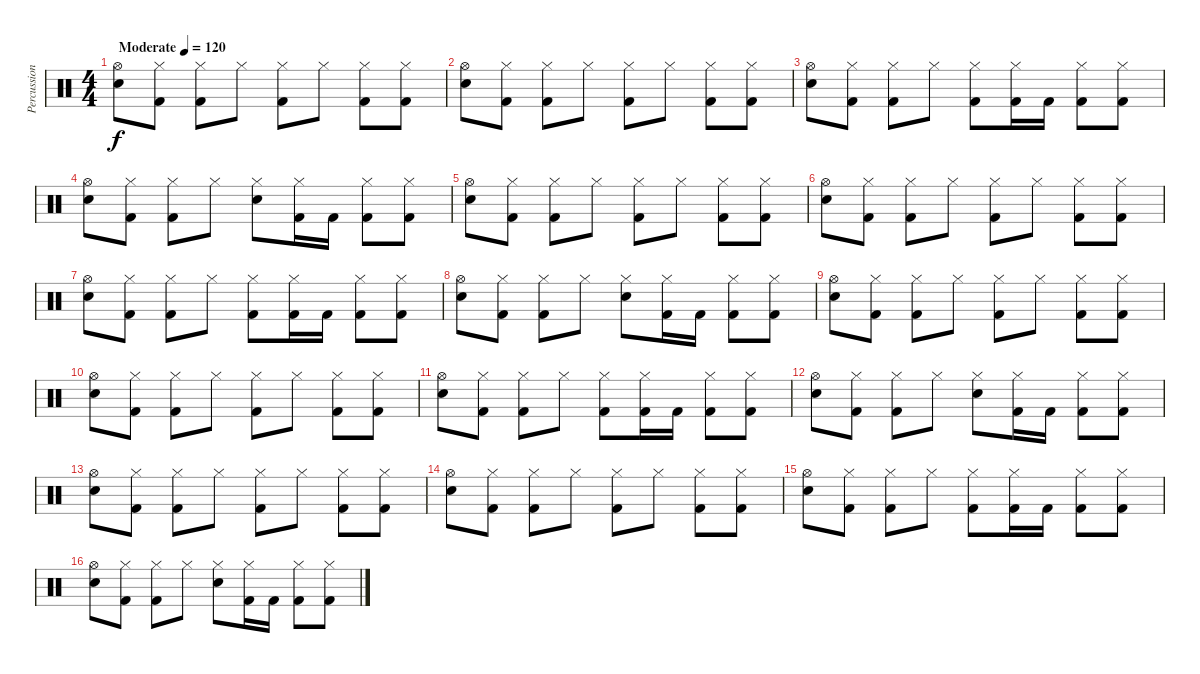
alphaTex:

\track ("Percussions" "Percussion") {instrument percussion}
\staff {score}
\articulation defaults
\ts (4 4)
\tempo (120 "Moderate")
\clef neutral
\ks c
("Hi-Hat (open)" "Snare (hit) 2").8{dy f} ("Hi-Hat (closed)" "Kick (hit) 2").8 ("Hi-Hat (closed)" "Kick (hit) 2").8 "Hi-Hat (closed)".8 ("Hi-Hat (closed)" "Kick (hit) 2").8 "Hi-Hat (closed)".8 ("Hi-Hat (closed)" "Kick (hit) 2").8 ("Hi-Hat (closed)" "Kick (hit) 2").8 |
("Hi-Hat (open)" "Snare (hit) 2").8 ("Hi-Hat (closed)" "Kick (hit) 2").8 ("Hi-Hat (closed)" "Kick (hit) 2").8 "Hi-Hat (closed)".8 ("Hi-Hat (closed)" "Kick (hit) 2").8 "Hi-Hat (closed)".8 ("Hi-Hat (closed)" "Kick (hit) 2").8 ("Hi-Hat (closed)" "Kick (hit) 2").8 |
("Hi-Hat (open)" "Snare (hit) 2").8 ("Hi-Hat (closed)" "Kick (hit) 2").8 ("Hi-Hat (closed)" "Kick (hit) 2").8 "Hi-Hat (closed)".8 ("Hi-Hat (closed)" "Kick (hit) 2").8 ("Hi-Hat (closed)" "Kick (hit) 2").16 "Kick (hit) 2".16 ("Hi-Hat (closed)" "Kick (hit) 2").8 ("Hi-Hat (closed)" "Kick (hit) 2").8 |
("Hi-Hat (open)" "Snare (hit) 2").8 ("Hi-Hat (closed)" "Kick (hit) 2").8 ("Hi-Hat (closed)" "Kick (hit) 2").8 "Hi-Hat (closed)".8 ("Hi-Hat (closed)" "Snare (hit) 2").8 ("Hi-Hat (closed)" "Kick (hit) 2").16 "Kick (hit) 2".16 ("Hi-Hat (closed)" "Kick (hit) 2").8 ("Hi-Hat (closed)" "Kick (hit) 2").8 |
("Hi-Hat (open)" "Snare (hit) 2").8 ("Hi-Hat (closed)" "Kick (hit) 2").8 ("Hi-Hat (closed)" "Kick (hit) 2").8 "Hi-Hat (closed)".8 ("Hi-Hat (closed)" "Kick (hit) 2").8 "Hi-Hat (closed)".8 ("Hi-Hat (closed)" "Kick (hit) 2").8 ("Hi-Hat (closed)" "Kick (hit) 2").8 |
("Hi-Hat (open)" "Snare (hit) 2").8 ("Hi-Hat (closed)" "Kick (hit) 2").8 ("Hi-Hat (closed)" "Kick (hit) 2").8 "Hi-Hat (closed)".8 ("Hi-Hat (closed)" "Kick (hit) 2").8 "Hi-Hat (closed)".8 ("Hi-Hat (closed)" "Kick (hit) 2").8 ("Hi-Hat (closed)" "Kick (hit) 2").8 |
("Hi-Hat (open)" "Snare (hit) 2").8 ("Hi-Hat (closed)" "Kick (hit) 2").8 ("Hi-Hat (closed)" "Kick (hit) 2").8 "Hi-Hat (closed)".8 ("Hi-Hat (closed)" "Kick (hit) 2").8 ("Hi-Hat (closed)" "Kick (hit) 2").16 "Kick (hit) 2".16 ("Hi-Hat (closed)" "Kick (hit) 2").8 ("Hi-Hat (closed)" "Kick (hit) 2").8 |
("Hi-Hat (open)" "Snare (hit) 2").8 ("Hi-Hat (closed)" "Kick (hit) 2").8 ("Hi-Hat (closed)" "Kick (hit) 2").8 "Hi-Hat (closed)".8 ("Hi-Hat (closed)" "Snare (hit) 2").8 ("Hi-Hat (closed)" "Kick (hit) 2").16 "Kick (hit) 2".16 ("Hi-Hat (closed)" "Kick (hit) 2").8 ("Hi-Hat (closed)" "Kick (hit) 2").8 |
("Hi-Hat (open)" "Snare (hit) 2").8 ("Hi-Hat (closed)" "Kick (hit) 2").8 ("Hi-Hat (closed)" "Kick (hit) 2").8 "Hi-Hat (closed)".8 ("Hi-Hat (closed)" "Kick (hit) 2").8 "Hi-Hat (closed)".8 ("Hi-Hat (closed)" "Kick (hit) 2").8 ("Hi-Hat (closed)" "Kick (hit) 2").8 |
("Hi-Hat (open)" "Snare (hit) 2").8 ("Hi-Hat (closed)" "Kick (hit) 2").8 ("Hi-Hat (closed)" "Kick (hit) 2").8 "Hi-Hat (closed)".8 ("Hi-Hat (closed)" "Kick (hit) 2").8 "Hi-Hat (closed)".8 ("Hi-Hat (closed)" "Kick (hit) 2").8 ("Hi-Hat (closed)" "Kick (hit) 2").8 |
("Hi-Hat (open)" "Snare (hit) 2").8 ("Hi-Hat (closed)" "Kick (hit) 2").8 ("Hi-Hat (closed)" "Kick (hit) 2").8 "Hi-Hat (closed)".8 ("Hi-Hat (closed)" "Kick (hit) 2").8 ("Hi-Hat (closed)" "Kick (hit) 2").16 "Kick (hit) 2".16 ("Hi-Hat (closed)" "Kick (hit) 2").8 ("Hi-Hat (closed)" "Kick (hit) 2").8 |
("Hi-Hat (open)" "Snare (hit) 2").8 ("Hi-Hat (closed)" "Kick (hit) 2").8 ("Hi-Hat (closed)" "Kick (hit) 2").8 "Hi-Hat (closed)".8 ("Hi-Hat (closed)" "Snare (hit) 2").8 ("Hi-Hat (closed)" "Kick (hit) 2").16 "Kick (hit) 2".16 ("Hi-Hat (closed)" "Kick (hit) 2").8 ("Hi-Hat (closed)" "Kick (hit) 2").8 |
("Hi-Hat (open)" "Snare (hit) 2").8 ("Hi-Hat (closed)" "Kick (hit) 2").8 ("Hi-Hat (closed)" "Kick (hit) 2").8 "Hi-Hat (closed)".8 ("Hi-Hat (closed)" "Kick (hit) 2").8 "Hi-Hat (closed)".8 ("Hi-Hat (closed)" "Kick (hit) 2").8 ("Hi-Hat (closed)" "Kick (hit) 2").8 |
("Hi-Hat (open)" "Snare (hit) 2").8 ("Hi-Hat (closed)" "Kick (hit) 2").8 ("Hi-Hat (closed)" "Kick (hit) 2").8 "Hi-Hat (closed)".8 ("Hi-Hat (closed)" "Kick (hit) 2").8 "Hi-Hat (closed)".8 ("Hi-Hat (closed)" "Kick (hit) 2").8 ("Hi-Hat (closed)" "Kick (hit) 2").8 |
("Hi-Hat (open)" "Snare (hit) 2").8 ("Hi-Hat (closed)" "Kick (hit) 2").8 ("Hi-Hat (closed)" "Kick (hit) 2").8 "Hi-Hat (closed)".8 ("Hi-Hat (closed)" "Kick (hit) 2").8 ("Hi-Hat (closed)" "Kick (hit) 2").16 "Kick (hit) 2".16 ("Hi-Hat (closed)" "Kick (hit) 2").8 ("Hi-Hat (closed)" "Kick (hit) 2").8 |
("Hi-Hat (open)" "Snare (hit) 2").8 ("Hi-Hat (closed)" "Kick (hit) 2").8 ("Hi-Hat (closed)" "Kick (hit) 2").8 "Hi-Hat (closed)".8 ("Hi-Hat (closed)" "Snare (hit) 2").8 ("Hi-Hat (closed)" "Kick (hit) 2").16 "Kick (hit) 2".16 ("Hi-Hat (closed)" "Kick (hit) 2").8 ("Hi-Hat (closed)" "Kick (hit) 2").8
